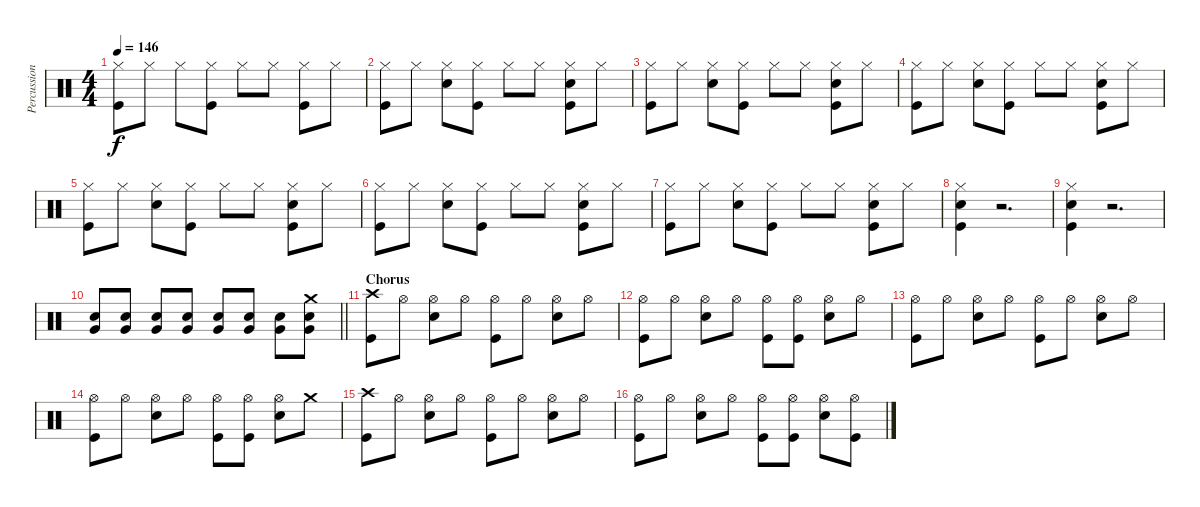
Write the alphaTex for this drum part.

\track ("Percussion" "Percussion") {instrument percussion}
\staff {score}
\articulation defaults
\ts (4 4)
\tempo 146
\clef neutral
\ks c
("Hi-Hat (closed)" "Kick (hit)").8{dy f} "Hi-Hat (closed)".8 "Hi-Hat (closed)".8 ("Hi-Hat (closed)" "Kick (hit)").8 "Hi-Hat (closed)".8 "Hi-Hat (closed)".8 ("Hi-Hat (closed)" "Kick (hit)").8 "Hi-Hat (closed)".8 |
("Hi-Hat (closed)" "Kick (hit)").8 "Hi-Hat (closed)".8 ("Hi-Hat (closed)" "Electric Snare (hit)").8 ("Hi-Hat (closed)" "Kick (hit)").8 "Hi-Hat (closed)".8 "Hi-Hat (closed)".8 ("Hi-Hat (closed)" "Electric Snare (hit)" "Kick (hit)").8 "Hi-Hat (closed)".8 |
("Hi-Hat (closed)" "Kick (hit)").8 "Hi-Hat (closed)".8 ("Hi-Hat (closed)" "Electric Snare (hit)").8 ("Hi-Hat (closed)" "Kick (hit)").8 "Hi-Hat (closed)".8 "Hi-Hat (closed)".8 ("Hi-Hat (closed)" "Electric Snare (hit)" "Kick (hit)").8 "Hi-Hat (closed)".8 |
("Hi-Hat (closed)" "Kick (hit)").8 "Hi-Hat (closed)".8 ("Hi-Hat (closed)" "Electric Snare (hit)").8 ("Hi-Hat (closed)" "Kick (hit)").8 "Hi-Hat (closed)".8 "Hi-Hat (closed)".8 ("Hi-Hat (closed)" "Electric Snare (hit)" "Kick (hit)").8 "Hi-Hat (closed)".8 |
("Hi-Hat (closed)" "Kick (hit)").8 "Hi-Hat (closed)".8 ("Hi-Hat (closed)" "Electric Snare (hit)").8 ("Hi-Hat (closed)" "Kick (hit)").8 "Hi-Hat (closed)".8 "Hi-Hat (closed)".8 ("Hi-Hat (closed)" "Electric Snare (hit)" "Kick (hit)").8 "Hi-Hat (closed)".8 |
("Hi-Hat (closed)" "Kick (hit)").8 "Hi-Hat (closed)".8 ("Hi-Hat (closed)" "Electric Snare (hit)").8 ("Hi-Hat (closed)" "Kick (hit)").8 "Hi-Hat (closed)".8 "Hi-Hat (closed)".8 ("Hi-Hat (closed)" "Electric Snare (hit)" "Kick (hit)").8 "Hi-Hat (closed)".8 |
("Hi-Hat (closed)" "Kick (hit)").8 "Hi-Hat (closed)".8 ("Hi-Hat (closed)" "Electric Snare (hit)").8 ("Hi-Hat (closed)" "Kick (hit)").8 "Hi-Hat (closed)".8 "Hi-Hat (closed)".8 ("Hi-Hat (closed)" "Electric Snare (hit)" "Kick (hit)").8 "Hi-Hat (closed)".8 |
("Hi-Hat (closed)" "Snare (hit) 2" "Kick (hit)").4 r.2{d} |
("Hi-Hat (closed)" "Snare (hit) 2" "Kick (hit)").4 r.2{d} |
\barLineRight lightlight
("Snare (hit) 2" "Very Low Tom (hit)").8 ("Snare (hit) 2" "Very Low Tom (hit)").8 ("Snare (hit) 2" "Very Low Tom (hit)").8 ("Snare (hit) 2" "Very Low Tom (hit)").8 ("Snare (hit) 2" "Very Low Tom (hit)").8 ("Snare (hit) 2" "Very Low Tom (hit)").8 ("Snare (hit) 2" "Very Low Tom (hit)").8 ("Crash medium (hit)" "Snare (hit) 2" "Very Low Tom (hit)").8 |
\section ("" "Chorus")
("Crash high (hit)" "Kick (hit)").8 "Hi-Hat (open)".8 ("Hi-Hat (open)" "Snare (hit) 2").8 "Hi-Hat (open)".8 ("Hi-Hat (open)" "Kick (hit)").8 "Hi-Hat (open)".8 ("Hi-Hat (open)" "Snare (hit) 2").8 "Hi-Hat (open)".8 |
("Hi-Hat (open)" "Kick (hit)").8 "Hi-Hat (open)".8 ("Hi-Hat (open)" "Snare (hit) 2").8 "Hi-Hat (open)".8 ("Hi-Hat (open)" "Kick (hit)").8 ("Hi-Hat (open)" "Kick (hit)").8 ("Hi-Hat (open)" "Snare (hit) 2").8 "Hi-Hat (open)".8 |
("Hi-Hat (open)" "Kick (hit)").8 "Hi-Hat (open)".8 ("Hi-Hat (open)" "Snare (hit) 2").8 "Hi-Hat (open)".8 ("Hi-Hat (open)" "Kick (hit)").8 "Hi-Hat (open)".8 ("Hi-Hat (open)" "Snare (hit) 2").8 "Hi-Hat (open)".8 |
("Hi-Hat (open)" "Kick (hit)").8 "Hi-Hat (open)".8 ("Hi-Hat (open)" "Snare (hit) 2").8 "Hi-Hat (open)".8 ("Hi-Hat (open)" "Kick (hit)").8 ("Hi-Hat (open)" "Kick (hit)").8 ("Hi-Hat (open)" "Snare (hit) 2").8 "Crash medium (hit)".8 |
("Crash high (hit)" "Kick (hit)").8 "Hi-Hat (open)".8 ("Hi-Hat (open)" "Snare (hit) 2").8 "Hi-Hat (open)".8 ("Hi-Hat (open)" "Kick (hit)").8 "Hi-Hat (open)".8 ("Hi-Hat (open)" "Snare (hit) 2").8 "Hi-Hat (open)".8 |
("Hi-Hat (open)" "Kick (hit)").8 "Hi-Hat (open)".8 ("Hi-Hat (open)" "Snare (hit) 2").8 "Hi-Hat (open)".8 ("Hi-Hat (open)" "Kick (hit)").8 ("Hi-Hat (open)" "Kick (hit)").8 ("Hi-Hat (open)" "Snare (hit) 2").8 ("Hi-Hat (open)" "Kick (hit)").8
